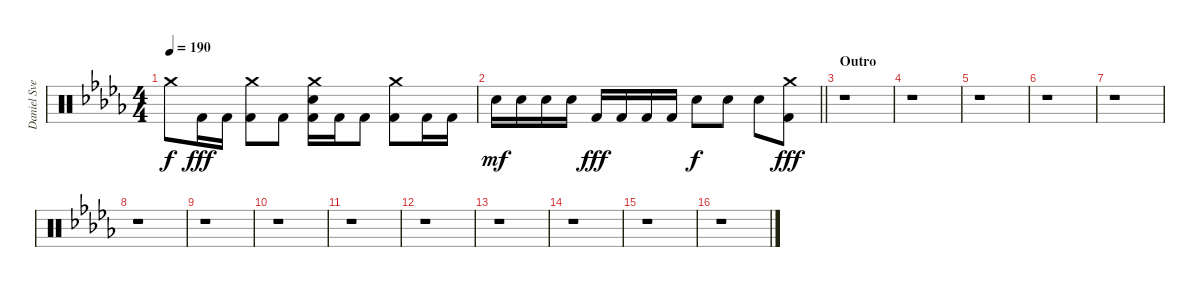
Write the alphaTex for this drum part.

\track ("Daniel Svensson" "Daniel Sve") {instrument percussion}
\staff {score}
\articulation defaults
\ts (4 4)
\tempo 190
\clef neutral
\ks db "Crash medium (hit)".8{dy f} "Kick (hit) 2".16{dy fff} "Kick (hit) 2".16
("Crash medium (hit)" "Kick (hit) 2").8 "Kick (hit) 2".8 ("Crash medium (hit)" "Electric Snare (hit)" "Kick (hit) 2").16 "Kick (hit) 2".16 "Kick (hit) 2".8 ("Crash medium (hit)" "Kick (hit) 2").8 "Kick (hit) 2".16 "Kick (hit) 2".16 |
\barLineRight lightlight "Electric Snare (hit)".16{dy mf} "Electric Snare (hit)".16 "Electric Snare (hit)".16 "Electric Snare (hit)".16 "Kick (hit) 2".16{dy fff} "Kick (hit) 2".16 "Kick (hit) 2".16 "Kick (hit) 2".16 "Electric Snare (hit)".8{dy f} "Electric Snare (hit)".8 "Electric Snare (hit)".8
("Crash medium (hit)" "Kick (hit) 2").8{dy fff} |
\section ("" "Outro")
r.1 |
r.1 |
r.1 |
r.1 |
r.1 |
r.1 |
r.1 |
r.1 |
r.1 |
r.1 |
r.1 |
r.1 |
r.1 |
r.1
